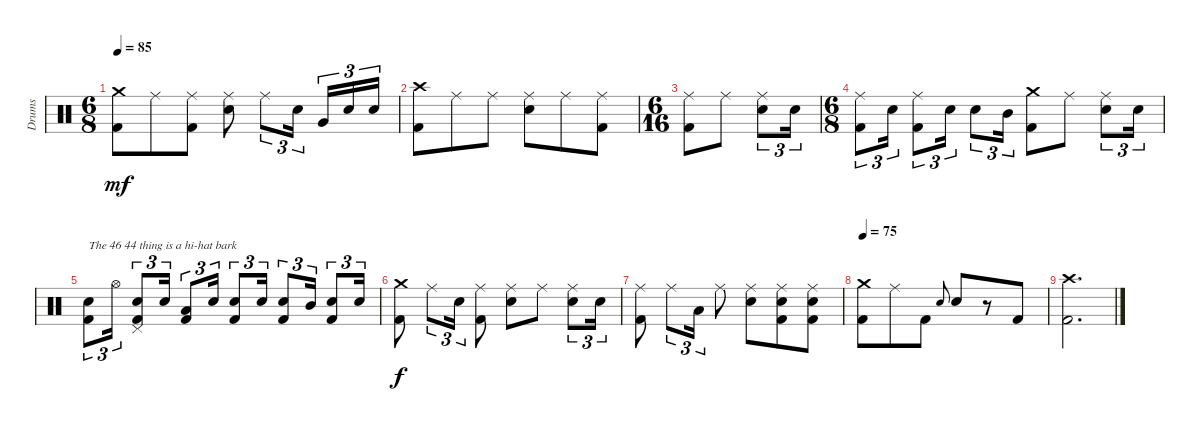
\track ("Drums" "Drums") {instrument percussion}
\staff {score}
\articulation defaults
\ts (6 8)
\tempo 85
\clef neutral
\ks c
("Crash medium (hit)" "Kick (hit) 2").8{dy mf} "Ride (middle)".8 ("Ride (middle)" "Kick (hit) 2").8 ("Ride (middle)" "Snare (hit) 2").8 "Ride (middle)".8{tu (3 2)} "Snare (hit) 2".16{tu (3 2) beam splitsecondary} "Very Low Tom (hit)".16{tu (3 2)} "Snare (hit) 2".16{tu (3 2)} "Snare (hit) 2".16{tu (3 2)} |
("Crash high (hit)" "Kick (hit) 2").8 "Ride (middle)".8 "Ride (middle)".8 ("Ride (middle)" "Snare (hit) 2").8 "Ride (middle)".8 ("Ride (middle)" "Kick (hit) 2").8 |
\ts (6 16)
("Ride (middle)" "Kick (hit) 2").8 "Ride (middle)".8 ("Ride (middle)" "Snare (hit) 2").8{tu (3 2)} "Snare (hit) 2".16{tu (3 2)} |
\ts (6 8)
("Ride (middle)" "Kick (hit) 2").8{tu (3 2)} "Snare (hit) 2".16{tu (3 2)} ("Ride (middle)" "Kick (hit) 2").8{tu (3 2)} "Snare (hit) 2".16{tu (3 2)} "Snare (hit) 2".8{tu (3 2)} "Mid Tom (hit)".16{tu (3 2)} ("Crash medium (hit)" "Kick (hit) 2").8 "Ride (middle)".8 ("Ride (middle)" "Snare (hit) 2").8{tu (3 2)} "Snare (hit) 2".16{tu (3 2)} |
("Snare (hit) 2" "Kick (hit) 2").8{tu (3 2) txt "The 46 44 thing is a hi-hat bark"} "Hi-Hat (open)".16{tu (3 2)} ("Pedal Hi-Hat (hit)" "Snare (hit) 2" "Kick (hit) 2").8{tu (3 2)} "Snare (hit) 2".16{tu (3 2)} ("Low Tom (hit)" "Kick (hit) 2").8{tu (3 2)} "Snare (hit) 2".16{tu (3 2)} ("Snare (hit) 2" "Kick (hit) 2").8{tu (3 2)} "Snare (hit) 2".16{tu (3 2)} ("Snare (hit) 2" "Kick (hit) 2").8{tu (3 2)} "Mid Tom (hit)".16{tu (3 2)} ("Snare (hit) 2" "Kick (hit) 2").8{tu (3 2)} "Snare (hit) 2".16{tu (3 2)} |
("Crash medium (hit)" "Kick (hit) 2").8{dy f} "Ride (middle)".8{tu (3 2)} "Snare (hit) 2".16{tu (3 2)} ("Ride (middle)" "Kick (hit) 2").8 ("Ride (middle)" "Snare (hit) 2").8 "Ride (middle)".8 ("Ride (middle)" "Snare (hit) 2").8{tu (3 2)} "Snare (hit) 2".16{tu (3 2)} |
("Ride (middle)" "Kick (hit) 2").8 "Ride (middle)".8{tu (3 2)} "Low Tom (hit)".16{tu (3 2)} "Ride (middle)".8 ("Ride (middle)" "Snare (hit) 2").8 ("Ride (middle)" "Snare (hit) 2" "Kick (hit) 2").8 ("Ride (middle)" "Snare (hit) 2" "Kick (hit) 2").8 |
\tempo 60
\tempo 75
("Crash medium (hit)" "Kick (hit) 2").8 "Ride (middle)".8 "Kick (hit) 2".8 "Snare (hit) 2".8{gr onbeat} "Snare (hit) 2".8 r.8 "Kick (hit) 2".8 |
("Crash high (hit)" "Kick (hit) 2").2{d}
